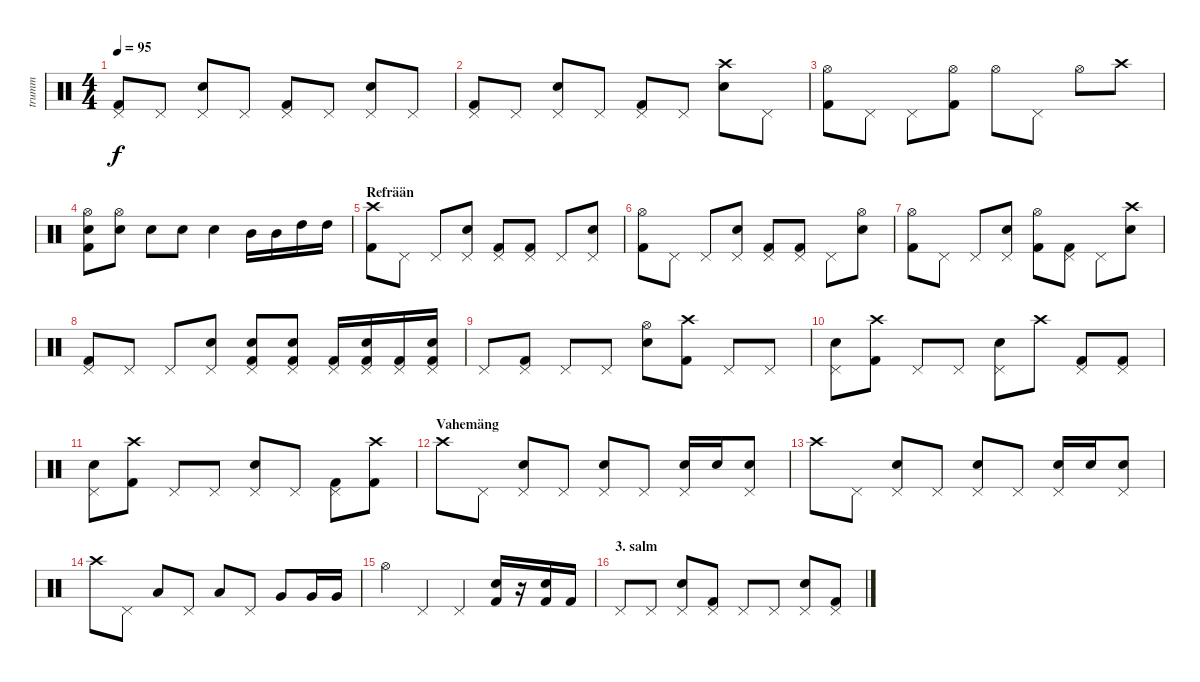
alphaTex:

\track ("trumm" "trumm") {instrument percussion}
\staff {score}
\articulation defaults
\ts (4 4)
\tempo 95
\clef neutral
\ks c
("Pedal Hi-Hat (hit)" "Kick (hit) 2").8{dy f} "Pedal Hi-Hat (hit)".8 ("Pedal Hi-Hat (hit)" "Snare (hit) 2").8 "Pedal Hi-Hat (hit)".8 ("Pedal Hi-Hat (hit)" "Kick (hit) 2").8 "Pedal Hi-Hat (hit)".8 ("Pedal Hi-Hat (hit)" "Snare (hit) 2").8 "Pedal Hi-Hat (hit)".8 |
("Pedal Hi-Hat (hit)" "Kick (hit) 2").8 "Pedal Hi-Hat (hit)".8 ("Pedal Hi-Hat (hit)" "Snare (hit) 2").8 "Pedal Hi-Hat (hit)".8 ("Pedal Hi-Hat (hit)" "Kick (hit) 2").8 "Pedal Hi-Hat (hit)".8 ("Crash high (hit)" "Snare (hit) 2").8 "Pedal Hi-Hat (hit)".8 |
("Hi-Hat (open)" "Kick (hit) 2").8 "Pedal Hi-Hat (hit)".8 "Pedal Hi-Hat (hit)".8 ("Hi-Hat (open)" "Kick (hit) 2").8 "Hi-Hat (open)".8 "Pedal Hi-Hat (hit)".8 "Hi-Hat (open)".8 "Crash high (hit)".8 |
("Hi-Hat (open)" "Snare (hit) 2" "Kick (hit) 2").8 ("Hi-Hat (open)" "Snare (hit) 2").8 "Snare (hit) 2".8 "Snare (hit) 2".8 "Snare (hit) 2".4 "Mid Tom (hit)".16 "Mid Tom (hit)".16 "High Tom (hit)".16 "High Tom (hit)".16 |
\section ("" "Refrään")
("Crash high (hit)" "Kick (hit) 2").8 "Pedal Hi-Hat (hit)".8 "Pedal Hi-Hat (hit)".8 ("Pedal Hi-Hat (hit)" "Snare (hit) 2").8 ("Pedal Hi-Hat (hit)" "Kick (hit) 2").8 ("Pedal Hi-Hat (hit)" "Kick (hit) 2").8 "Pedal Hi-Hat (hit)".8 ("Pedal Hi-Hat (hit)" "Snare (hit) 2").8 |
("Hi-Hat (open)" "Kick (hit) 2").8 "Pedal Hi-Hat (hit)".8 "Pedal Hi-Hat (hit)".8 ("Pedal Hi-Hat (hit)" "Snare (hit) 2").8 ("Pedal Hi-Hat (hit)" "Kick (hit) 2").8 ("Pedal Hi-Hat (hit)" "Kick (hit) 2").8 "Pedal Hi-Hat (hit)".8 ("Hi-Hat (open)" "Snare (hit) 2").8 |
("Hi-Hat (open)" "Kick (hit) 2").8 "Pedal Hi-Hat (hit)".8 "Pedal Hi-Hat (hit)".8 ("Pedal Hi-Hat (hit)" "Snare (hit) 2").8 ("Hi-Hat (open)" "Kick (hit) 2").8 ("Pedal Hi-Hat (hit)" "Kick (hit) 2").8 "Pedal Hi-Hat (hit)".8 ("Crash high (hit)" "Snare (hit) 2").8 |
("Pedal Hi-Hat (hit)" "Kick (hit) 2").8 "Pedal Hi-Hat (hit)".8 "Pedal Hi-Hat (hit)".8 ("Pedal Hi-Hat (hit)" "Snare (hit) 2").8 ("Pedal Hi-Hat (hit)" "Snare (hit) 2" "Kick (hit) 2").8 ("Pedal Hi-Hat (hit)" "Snare (hit) 2" "Kick (hit) 2").8 ("Pedal Hi-Hat (hit)" "Kick (hit) 2").16 ("Pedal Hi-Hat (hit)" "Snare (hit) 2" "Kick (hit) 2").16 ("Pedal Hi-Hat (hit)" "Kick (hit) 2").16 ("Pedal Hi-Hat (hit)" "Snare (hit) 2" "Kick (hit) 2").16 |
"Pedal Hi-Hat (hit)".8 ("Pedal Hi-Hat (hit)" "Kick (hit) 2").8 "Pedal Hi-Hat (hit)".8 "Pedal Hi-Hat (hit)".8 ("Hi-Hat (open)" "Snare (hit) 2").8 ("Crash high (hit)" "Kick (hit) 2").8 "Pedal Hi-Hat (hit)".8 "Pedal Hi-Hat (hit)".8 |
("Pedal Hi-Hat (hit)" "Snare (hit) 2").8 ("Crash high (hit)" "Kick (hit) 2").8 "Pedal Hi-Hat (hit)".8 "Pedal Hi-Hat (hit)".8 ("Pedal Hi-Hat (hit)" "Snare (hit) 2").8 "Crash high (hit)".8 ("Pedal Hi-Hat (hit)" "Kick (hit) 2").8 ("Pedal Hi-Hat (hit)" "Kick (hit) 2").8 |
("Pedal Hi-Hat (hit)" "Snare (hit) 2").8 ("Crash high (hit)" "Kick (hit) 2").8 "Pedal Hi-Hat (hit)".8 "Pedal Hi-Hat (hit)".8 ("Pedal Hi-Hat (hit)" "Snare (hit) 2").8 "Pedal Hi-Hat (hit)".8 ("Pedal Hi-Hat (hit)" "Kick (hit) 2").8 ("Crash high (hit)" "Kick (hit) 2").8 |
\section ("" "Vahemäng")
"Crash high (hit)".8 "Pedal Hi-Hat (hit)".8 ("Pedal Hi-Hat (hit)" "Snare (hit) 2").8 "Pedal Hi-Hat (hit)".8 ("Pedal Hi-Hat (hit)" "Snare (hit) 2").8 "Pedal Hi-Hat (hit)".8 ("Pedal Hi-Hat (hit)" "Snare (hit) 2").16 "Snare (hit) 2".16 ("Pedal Hi-Hat (hit)" "Snare (hit) 2").8 |
"Crash high (hit)".8 "Pedal Hi-Hat (hit)".8 ("Pedal Hi-Hat (hit)" "Snare (hit) 2").8 "Pedal Hi-Hat (hit)".8 ("Pedal Hi-Hat (hit)" "Snare (hit) 2").8 "Pedal Hi-Hat (hit)".8 ("Pedal Hi-Hat (hit)" "Snare (hit) 2").16 "Snare (hit) 2".16 ("Pedal Hi-Hat (hit)" "Snare (hit) 2").8 |
"Crash high (hit)".8 "Pedal Hi-Hat (hit)".8 "Low Tom (hit)".8 "Pedal Hi-Hat (hit)".8 "Low Tom (hit)".8 "Pedal Hi-Hat (hit)".8 "Very Low Tom (hit)".8 "Very Low Tom (hit)".16 "Very Low Tom (hit)".16 |
"Hi-Hat (open)".4 "Pedal Hi-Hat (hit)".4 "Pedal Hi-Hat (hit)".4 ("Snare (hit) 2" "Kick (hit) 2").16 r.16 ("Snare (hit) 2" "Kick (hit) 2").16 "Kick (hit) 2".16 |
\section ("" "3. salm")
"Pedal Hi-Hat (hit)".8 "Pedal Hi-Hat (hit)".8 ("Pedal Hi-Hat (hit)" "Snare (hit) 2").8 ("Pedal Hi-Hat (hit)" "Kick (hit) 2").8 "Pedal Hi-Hat (hit)".8 "Pedal Hi-Hat (hit)".8 ("Pedal Hi-Hat (hit)" "Snare (hit) 2").8 ("Pedal Hi-Hat (hit)" "Kick (hit) 2").8
